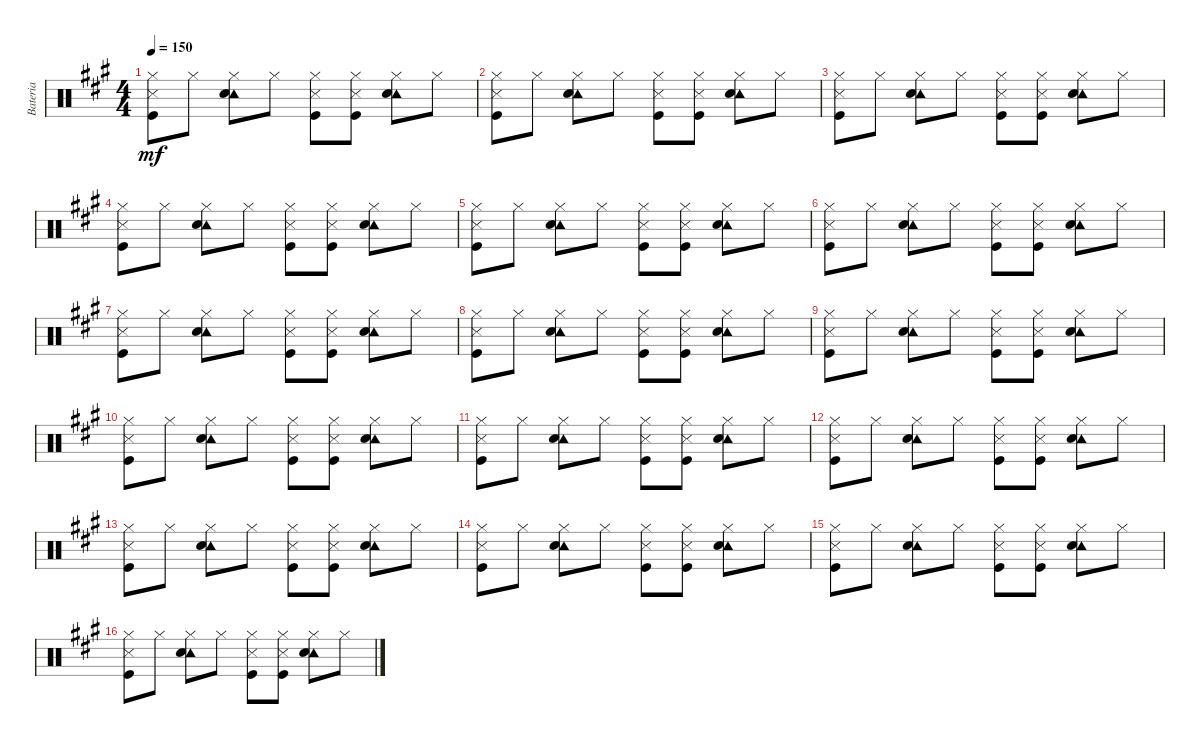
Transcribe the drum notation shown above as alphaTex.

\track ("Bateria" "Bateria") {instrument percussion}
\staff {score}
\articulation defaults
\ts (4 4)
\tempo 150
\clef neutral
\ks a
("Hi-Hat (closed)" "Metronome (hit)" "Kick (hit)").8{dy mf} "Hi-Hat (closed)".8 ("Tambourine (hit)" "Hi-Hat (closed)" "Electric Snare (hit)").8 "Hi-Hat (closed)".8 ("Hi-Hat (closed)" "Metronome (hit)" "Kick (hit)").8 ("Hi-Hat (closed)" "Metronome (hit)" "Kick (hit)").8 ("Tambourine (hit)" "Hi-Hat (closed)" "Electric Snare (hit)").8 "Hi-Hat (closed)".8 |
("Hi-Hat (closed)" "Metronome (hit)" "Kick (hit)").8 "Hi-Hat (closed)".8 ("Tambourine (hit)" "Hi-Hat (closed)" "Electric Snare (hit)").8 "Hi-Hat (closed)".8 ("Hi-Hat (closed)" "Metronome (hit)" "Kick (hit)").8 ("Hi-Hat (closed)" "Metronome (hit)" "Kick (hit)").8 ("Tambourine (hit)" "Hi-Hat (closed)" "Electric Snare (hit)").8 "Hi-Hat (closed)".8 |
("Hi-Hat (closed)" "Metronome (hit)" "Kick (hit)").8 "Hi-Hat (closed)".8 ("Tambourine (hit)" "Hi-Hat (closed)" "Electric Snare (hit)").8 "Hi-Hat (closed)".8 ("Hi-Hat (closed)" "Metronome (hit)" "Kick (hit)").8 ("Hi-Hat (closed)" "Metronome (hit)" "Kick (hit)").8 ("Tambourine (hit)" "Hi-Hat (closed)" "Electric Snare (hit)").8 "Hi-Hat (closed)".8 |
("Hi-Hat (closed)" "Metronome (hit)" "Kick (hit)").8 "Hi-Hat (closed)".8 ("Tambourine (hit)" "Hi-Hat (closed)" "Electric Snare (hit)").8 "Hi-Hat (closed)".8 ("Hi-Hat (closed)" "Metronome (hit)" "Kick (hit)").8 ("Hi-Hat (closed)" "Metronome (hit)" "Kick (hit)").8 ("Tambourine (hit)" "Hi-Hat (closed)" "Electric Snare (hit)").8 "Hi-Hat (closed)".8 |
("Hi-Hat (closed)" "Metronome (hit)" "Kick (hit)").8 "Hi-Hat (closed)".8 ("Tambourine (hit)" "Hi-Hat (closed)" "Electric Snare (hit)").8 "Hi-Hat (closed)".8 ("Hi-Hat (closed)" "Metronome (hit)" "Kick (hit)").8 ("Hi-Hat (closed)" "Metronome (hit)" "Kick (hit)").8 ("Tambourine (hit)" "Hi-Hat (closed)" "Electric Snare (hit)").8 "Hi-Hat (closed)".8 |
("Hi-Hat (closed)" "Metronome (hit)" "Kick (hit)").8 "Hi-Hat (closed)".8 ("Tambourine (hit)" "Hi-Hat (closed)" "Electric Snare (hit)").8 "Hi-Hat (closed)".8 ("Hi-Hat (closed)" "Metronome (hit)" "Kick (hit)").8 ("Hi-Hat (closed)" "Metronome (hit)" "Kick (hit)").8 ("Tambourine (hit)" "Hi-Hat (closed)" "Electric Snare (hit)").8 "Hi-Hat (closed)".8 |
("Hi-Hat (closed)" "Metronome (hit)" "Kick (hit)").8 "Hi-Hat (closed)".8 ("Tambourine (hit)" "Hi-Hat (closed)" "Electric Snare (hit)").8 "Hi-Hat (closed)".8 ("Hi-Hat (closed)" "Metronome (hit)" "Kick (hit)").8 ("Hi-Hat (closed)" "Metronome (hit)" "Kick (hit)").8 ("Tambourine (hit)" "Hi-Hat (closed)" "Electric Snare (hit)").8 "Hi-Hat (closed)".8 |
("Hi-Hat (closed)" "Metronome (hit)" "Kick (hit)").8 "Hi-Hat (closed)".8 ("Tambourine (hit)" "Hi-Hat (closed)" "Electric Snare (hit)").8 "Hi-Hat (closed)".8 ("Hi-Hat (closed)" "Metronome (hit)" "Kick (hit)").8 ("Hi-Hat (closed)" "Metronome (hit)" "Kick (hit)").8 ("Tambourine (hit)" "Hi-Hat (closed)" "Electric Snare (hit)").8 "Hi-Hat (closed)".8 |
("Hi-Hat (closed)" "Metronome (hit)" "Kick (hit)").8 "Hi-Hat (closed)".8 ("Tambourine (hit)" "Hi-Hat (closed)" "Electric Snare (hit)").8 "Hi-Hat (closed)".8 ("Hi-Hat (closed)" "Metronome (hit)" "Kick (hit)").8 ("Hi-Hat (closed)" "Metronome (hit)" "Kick (hit)").8 ("Tambourine (hit)" "Hi-Hat (closed)" "Electric Snare (hit)").8 "Hi-Hat (closed)".8 |
("Hi-Hat (closed)" "Metronome (hit)" "Kick (hit)").8 "Hi-Hat (closed)".8 ("Tambourine (hit)" "Hi-Hat (closed)" "Electric Snare (hit)").8 "Hi-Hat (closed)".8 ("Hi-Hat (closed)" "Metronome (hit)" "Kick (hit)").8 ("Hi-Hat (closed)" "Metronome (hit)" "Kick (hit)").8 ("Tambourine (hit)" "Hi-Hat (closed)" "Electric Snare (hit)").8 "Hi-Hat (closed)".8 |
("Hi-Hat (closed)" "Metronome (hit)" "Kick (hit)").8 "Hi-Hat (closed)".8 ("Tambourine (hit)" "Hi-Hat (closed)" "Electric Snare (hit)").8 "Hi-Hat (closed)".8 ("Hi-Hat (closed)" "Metronome (hit)" "Kick (hit)").8 ("Hi-Hat (closed)" "Metronome (hit)" "Kick (hit)").8 ("Tambourine (hit)" "Hi-Hat (closed)" "Electric Snare (hit)").8 "Hi-Hat (closed)".8 |
("Hi-Hat (closed)" "Metronome (hit)" "Kick (hit)").8 "Hi-Hat (closed)".8 ("Tambourine (hit)" "Hi-Hat (closed)" "Electric Snare (hit)").8 "Hi-Hat (closed)".8 ("Hi-Hat (closed)" "Metronome (hit)" "Kick (hit)").8 ("Hi-Hat (closed)" "Metronome (hit)" "Kick (hit)").8 ("Tambourine (hit)" "Hi-Hat (closed)" "Electric Snare (hit)").8 "Hi-Hat (closed)".8 |
("Hi-Hat (closed)" "Metronome (hit)" "Kick (hit)").8 "Hi-Hat (closed)".8 ("Tambourine (hit)" "Hi-Hat (closed)" "Electric Snare (hit)").8 "Hi-Hat (closed)".8 ("Hi-Hat (closed)" "Metronome (hit)" "Kick (hit)").8 ("Hi-Hat (closed)" "Metronome (hit)" "Kick (hit)").8 ("Tambourine (hit)" "Hi-Hat (closed)" "Electric Snare (hit)").8 "Hi-Hat (closed)".8 |
("Hi-Hat (closed)" "Metronome (hit)" "Kick (hit)").8 "Hi-Hat (closed)".8 ("Tambourine (hit)" "Hi-Hat (closed)" "Electric Snare (hit)").8 "Hi-Hat (closed)".8 ("Hi-Hat (closed)" "Metronome (hit)" "Kick (hit)").8 ("Hi-Hat (closed)" "Metronome (hit)" "Kick (hit)").8 ("Tambourine (hit)" "Hi-Hat (closed)" "Electric Snare (hit)").8 "Hi-Hat (closed)".8 |
("Hi-Hat (closed)" "Metronome (hit)" "Kick (hit)").8 "Hi-Hat (closed)".8 ("Tambourine (hit)" "Hi-Hat (closed)" "Electric Snare (hit)").8 "Hi-Hat (closed)".8 ("Hi-Hat (closed)" "Metronome (hit)" "Kick (hit)").8 ("Hi-Hat (closed)" "Metronome (hit)" "Kick (hit)").8 ("Tambourine (hit)" "Hi-Hat (closed)" "Electric Snare (hit)").8 "Hi-Hat (closed)".8 |
("Hi-Hat (closed)" "Metronome (hit)" "Kick (hit)").8 "Hi-Hat (closed)".8 ("Tambourine (hit)" "Hi-Hat (closed)" "Electric Snare (hit)").8 "Hi-Hat (closed)".8 ("Hi-Hat (closed)" "Metronome (hit)" "Kick (hit)").8 ("Hi-Hat (closed)" "Metronome (hit)" "Kick (hit)").8 ("Tambourine (hit)" "Hi-Hat (closed)" "Electric Snare (hit)").8 "Hi-Hat (closed)".8
